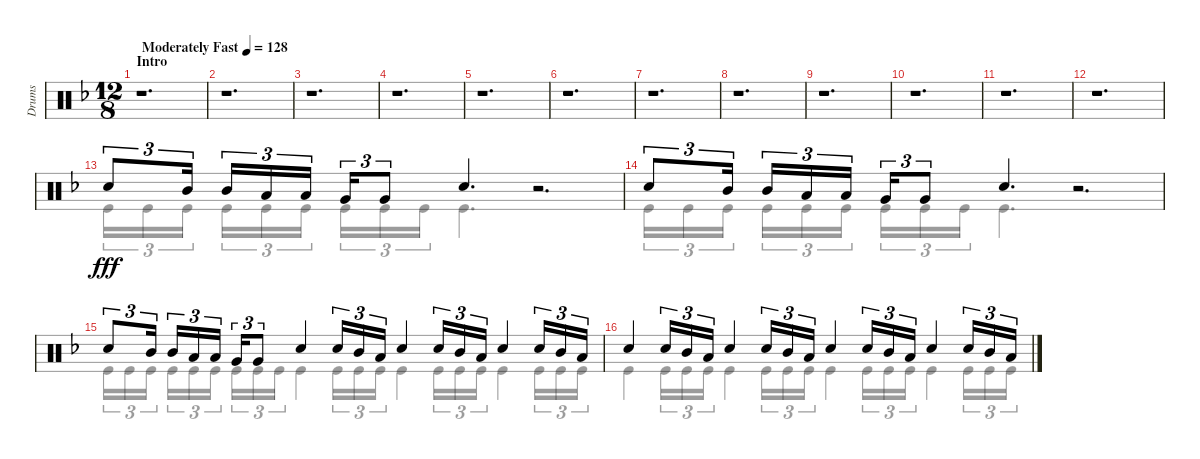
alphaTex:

\track ("Drums" "Drums") {instrument percussion}
\staff {score}
\articulation defaults
\voice
\ts (12 8)
\section ("" "Intro")
\tempo (128 "Moderately Fast")
\clef neutral
\ks dminor
r.1{d dy fff} |
r.1{d} |
r.1{d} |
r.1{d} |
r.1{d} |
r.1{d} |
r.1{d} |
r.1{d} |
r.1{d} |
r.1{d} |
r.1{d} |
r.1{d} |
"Electric Snare (hit)".8{tu (3 2)} "Mid Tom (hit)".16{tu (3 2) beam splitsecondary} "Mid Tom (hit)".16{tu (3 2)} "Low Tom (hit)".16{tu (3 2)} "Low Tom (hit)".16{tu (3 2) beam splitsecondary} "Very Low Tom (hit)".16{tu (3 2)} "Very Low Tom (hit)".8{tu (3 2)} "Electric Snare (hit)".4{d} r.2{d} |
"Electric Snare (hit)".8{tu (3 2)} "Mid Tom (hit)".16{tu (3 2) beam splitsecondary} "Mid Tom (hit)".16{tu (3 2)} "Low Tom (hit)".16{tu (3 2)} "Low Tom (hit)".16{tu (3 2) beam splitsecondary} "Very Low Tom (hit)".16{tu (3 2)} "Very Low Tom (hit)".8{tu (3 2)} "Electric Snare (hit)".4{d} r.2{d} |
"Electric Snare (hit)".8{tu (3 2)} "Mid Tom (hit)".16{tu (3 2) beam splitsecondary} "Mid Tom (hit)".16{tu (3 2)} "Low Tom (hit)".16{tu (3 2)} "Low Tom (hit)".16{tu (3 2) beam splitsecondary} "Very Low Tom (hit)".16{tu (3 2)} "Very Low Tom (hit)".8{tu (3 2)} "Electric Snare (hit)".4 "Electric Snare (hit)".16{tu (3 2)} "Mid Tom (hit)".16{tu (3 2)} "Low Tom (hit)".16{tu (3 2)} "Electric Snare (hit)".4 "Electric Snare (hit)".16{tu (3 2)} "Mid Tom (hit)".16{tu (3 2)} "Low Tom (hit)".16{tu (3 2)} "Electric Snare (hit)".4 "Electric Snare (hit)".16{tu (3 2)} "Mid Tom (hit)".16{tu (3 2)} "Low Tom (hit)".16{tu (3 2)} |
"Electric Snare (hit)".4 "Electric Snare (hit)".16{tu (3 2)} "Mid Tom (hit)".16{tu (3 2)} "Low Tom (hit)".16{tu (3 2)} "Electric Snare (hit)".4 "Electric Snare (hit)".16{tu (3 2)} "Mid Tom (hit)".16{tu (3 2)} "Low Tom (hit)".16{tu (3 2)} "Electric Snare (hit)".4 "Electric Snare (hit)".16{tu (3 2)} "Mid Tom (hit)".16{tu (3 2)} "Low Tom (hit)".16{tu (3 2)} "Electric Snare (hit)".4 "Electric Snare (hit)".16{tu (3 2)} "Mid Tom (hit)".16{tu (3 2)} "Low Tom (hit)".16{tu (3 2)}
\voice
\clef neutral
\ottava regular
\simile none
\ks dminor
|
|
|
|
|
|
|
|
|
|
|
|
"Kick (hit)".16{tu (3 2)} "Kick (hit)".16{tu (3 2)} "Kick (hit)".16{tu (3 2) beam splitsecondary} "Kick (hit)".16{tu (3 2)} "Kick (hit)".16{tu (3 2)} "Kick (hit)".16{tu (3 2) beam splitsecondary} "Kick (hit)".16{tu (3 2)} "Kick (hit)".16{tu (3 2)} "Kick (hit)".16{tu (3 2)} "Kick (hit)".4{d} r.2{d} |
"Kick (hit)".16{tu (3 2)} "Kick (hit)".16{tu (3 2)} "Kick (hit)".16{tu (3 2) beam splitsecondary} "Kick (hit)".16{tu (3 2)} "Kick (hit)".16{tu (3 2)} "Kick (hit)".16{tu (3 2) beam splitsecondary} "Kick (hit)".16{tu (3 2)} "Kick (hit)".16{tu (3 2)} "Kick (hit)".16{tu (3 2)} "Kick (hit)".4{d} r.2{d} |
"Kick (hit)".16{tu (3 2)} "Kick (hit)".16{tu (3 2)} "Kick (hit)".16{tu (3 2) beam splitsecondary} "Kick (hit)".16{tu (3 2)} "Kick (hit)".16{tu (3 2)} "Kick (hit)".16{tu (3 2) beam splitsecondary} "Kick (hit)".16{tu (3 2)} "Kick (hit)".16{tu (3 2)} "Kick (hit)".16{tu (3 2)} "Kick (hit)".4 "Kick (hit)".16{tu (3 2)} "Kick (hit)".16{tu (3 2)} "Kick (hit)".16{tu (3 2)} "Kick (hit)".4 "Kick (hit)".16{tu (3 2)} "Kick (hit)".16{tu (3 2)} "Kick (hit)".16{tu (3 2)} "Kick (hit)".4 "Kick (hit)".16{tu (3 2)} "Kick (hit)".16{tu (3 2)} "Kick (hit)".16{tu (3 2)} |
"Kick (hit)".4 "Kick (hit)".16{tu (3 2)} "Kick (hit)".16{tu (3 2)} "Kick (hit)".16{tu (3 2)} "Kick (hit)".4 "Kick (hit)".16{tu (3 2)} "Kick (hit)".16{tu (3 2)} "Kick (hit)".16{tu (3 2)} "Kick (hit)".4 "Kick (hit)".16{tu (3 2)} "Kick (hit)".16{tu (3 2)} "Kick (hit)".16{tu (3 2)} "Kick (hit)".4 "Kick (hit)".16{tu (3 2)} "Kick (hit)".16{tu (3 2)} "Kick (hit)".16{tu (3 2)}
